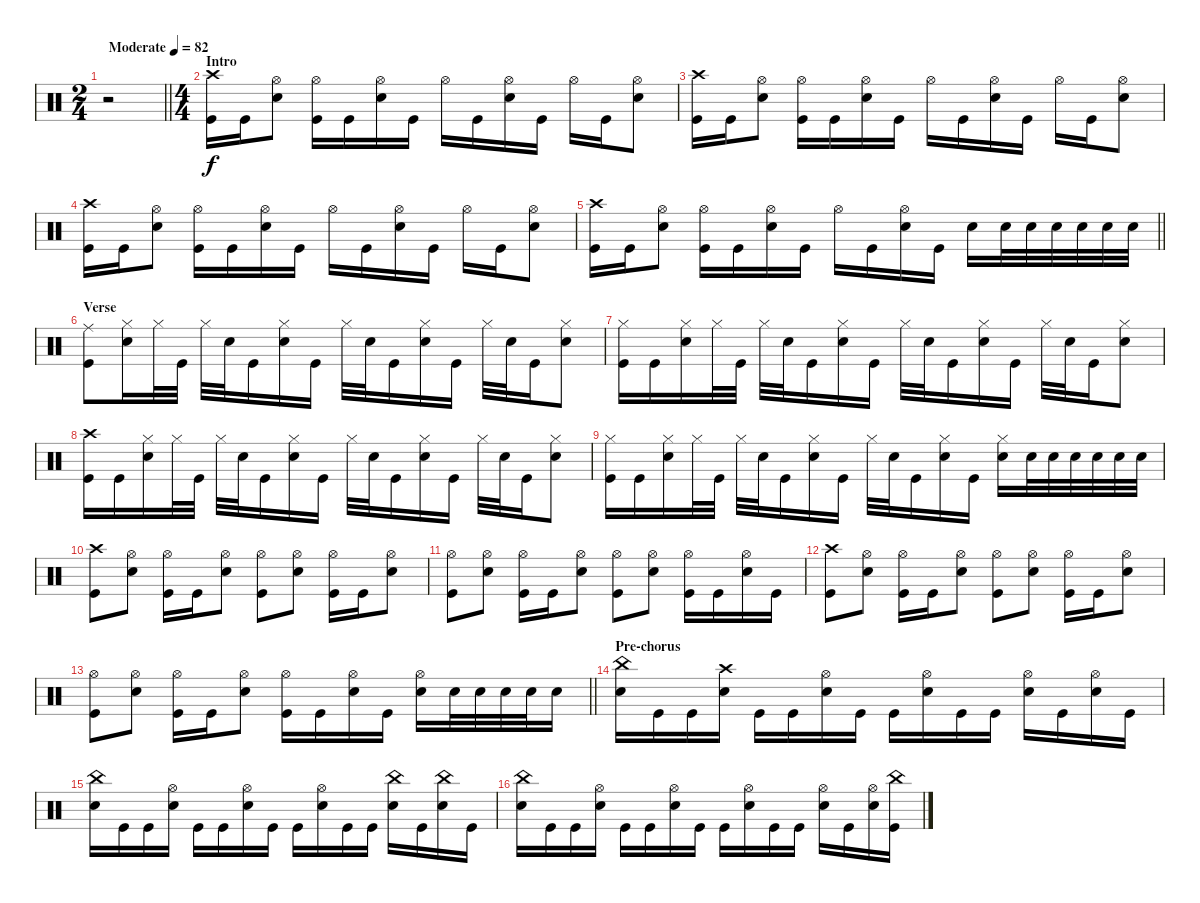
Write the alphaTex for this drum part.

\track "" {instrument percussion}
\staff {score}
\articulation defaults
\ts (2 4)
\tempo (82 "Moderate")
\clef neutral
\barLineRight lightlight
\ks c
r.2{txt "" dy f} |
\ts (4 4)
\section ("" "Intro")
("Crash high (hit)" "Kick (hit)").16 "Kick (hit)".16 ("Snare (hit) 2" "Hi-Hat (open)").8 ("Kick (hit)" "Hi-Hat (open)").16 "Kick (hit)".16 ("Snare (hit) 2" "Hi-Hat (open)").16 "Kick (hit)".16 "Hi-Hat (open)".16 "Kick (hit)".16 ("Snare (hit) 2" "Hi-Hat (open)").16 "Kick (hit)".16 "Hi-Hat (open)".16 "Kick (hit)".16 ("Snare (hit) 2" "Hi-Hat (open)").8 |
("Crash high (hit)" "Kick (hit)").16 "Kick (hit)".16 ("Snare (hit) 2" "Hi-Hat (open)").8 ("Kick (hit)" "Hi-Hat (open)").16 "Kick (hit)".16 ("Snare (hit) 2" "Hi-Hat (open)").16 "Kick (hit)".16 "Hi-Hat (open)".16 "Kick (hit)".16 ("Snare (hit) 2" "Hi-Hat (open)").16 "Kick (hit)".16 "Hi-Hat (open)".16 "Kick (hit)".16 ("Snare (hit) 2" "Hi-Hat (open)").8 |
("Crash high (hit)" "Kick (hit)").16 "Kick (hit)".16 ("Snare (hit) 2" "Hi-Hat (open)").8 ("Kick (hit)" "Hi-Hat (open)").16 "Kick (hit)".16 ("Snare (hit) 2" "Hi-Hat (open)").16 "Kick (hit)".16 "Hi-Hat (open)".16 "Kick (hit)".16 ("Snare (hit) 2" "Hi-Hat (open)").16 "Kick (hit)".16 "Hi-Hat (open)".16 "Kick (hit)".16 ("Snare (hit) 2" "Hi-Hat (open)").8 |
\barLineRight lightlight
("Crash high (hit)" "Kick (hit)").16 "Kick (hit)".16 ("Snare (hit) 2" "Hi-Hat (open)").8 ("Kick (hit)" "Hi-Hat (open)").16 "Kick (hit)".16 ("Snare (hit) 2" "Hi-Hat (open)").16 "Kick (hit)".16 "Hi-Hat (open)".16 "Kick (hit)".16 ("Snare (hit) 2" "Hi-Hat (open)").16 "Kick (hit)".16 "Snare (hit) 2".16 "Snare (hit) 2".32 "Snare (hit) 2".32 "Snare (hit) 2".32 "Snare (hit) 2".32 "Snare (hit) 2".32 "Snare (hit) 2".32 |
\section ("" "Verse")
("Kick (hit)" "Ride (middle)").8{txt ""} ("Snare (hit) 2" "Hi-Hat (closed)").16 "Hi-Hat (closed)".32 "Kick (hit)".32 "Hi-Hat (closed)".32 "Snare (hit) 2".32 "Kick (hit)".16 ("Snare (hit) 2" "Hi-Hat (closed)").16 "Kick (hit)".16 "Hi-Hat (closed)".32 "Snare (hit) 2".32 "Kick (hit)".16 ("Snare (hit) 2" "Hi-Hat (closed)").16 "Kick (hit)".16 "Hi-Hat (closed)".32 "Snare (hit) 2".32 "Kick (hit)".16 ("Snare (hit) 2" "Hi-Hat (closed)").8 |
("Kick (hit)" "Hi-Hat (closed)").16 "Kick (hit)".16 ("Snare (hit) 2" "Hi-Hat (closed)").16 "Hi-Hat (closed)".32 "Kick (hit)".32 "Hi-Hat (closed)".32 "Snare (hit) 2".32 "Kick (hit)".16 ("Snare (hit) 2" "Hi-Hat (closed)").16 "Kick (hit)".16 "Hi-Hat (closed)".32 "Snare (hit) 2".32 "Kick (hit)".16 ("Snare (hit) 2" "Hi-Hat (closed)").16 "Kick (hit)".16 "Hi-Hat (closed)".32 "Snare (hit) 2".32 "Kick (hit)".16 ("Snare (hit) 2" "Hi-Hat (closed)").8 |
("Kick (hit)" "Crash high (hit)").16 "Kick (hit)".16 ("Snare (hit) 2" "Hi-Hat (closed)").16 "Hi-Hat (closed)".32 "Kick (hit)".32 "Hi-Hat (closed)".32 "Snare (hit) 2".32 "Kick (hit)".16 ("Snare (hit) 2" "Hi-Hat (closed)").16 "Kick (hit)".16 "Hi-Hat (closed)".32 "Snare (hit) 2".32 "Kick (hit)".16 ("Snare (hit) 2" "Hi-Hat (closed)").16 "Kick (hit)".16 "Hi-Hat (closed)".32 "Snare (hit) 2".32 "Kick (hit)".16 ("Snare (hit) 2" "Hi-Hat (closed)").8 |
("Kick (hit)" "Hi-Hat (closed)").16 "Kick (hit)".16 ("Snare (hit) 2" "Hi-Hat (closed)").16 "Hi-Hat (closed)".32 "Kick (hit)".32 "Hi-Hat (closed)".32 "Snare (hit) 2".32 "Kick (hit)".16 ("Snare (hit) 2" "Hi-Hat (closed)").16 "Kick (hit)".16 "Hi-Hat (closed)".32 "Snare (hit) 2".32 "Kick (hit)".16 ("Snare (hit) 2" "Hi-Hat (closed)").16 "Kick (hit)".16 ("Snare (hit) 2" "Hi-Hat (closed)").16 "Snare (hit) 2".32 "Snare (hit) 2".32 "Snare (hit) 2".32 "Snare (hit) 2".32 "Snare (hit) 2".32 "Snare (hit) 2".32 |
("Crash high (hit)" "Kick (hit)").8{txt ""} ("Snare (hit) 2" "Hi-Hat (open)").8 ("Hi-Hat (open)" "Kick (hit)").16 "Kick (hit)".16 ("Snare (hit) 2" "Hi-Hat (open)").8 ("Kick (hit)" "Hi-Hat (open)").8 ("Snare (hit) 2" "Hi-Hat (open)").8 ("Kick (hit)" "Hi-Hat (open)").16 "Kick (hit)".16 ("Snare (hit) 2" "Hi-Hat (open)").8 |
("Hi-Hat (open)" "Kick (hit)").8 ("Snare (hit) 2" "Hi-Hat (open)").8 ("Hi-Hat (open)" "Kick (hit)").16 "Kick (hit)".16 ("Snare (hit) 2" "Hi-Hat (open)").8 ("Kick (hit)" "Hi-Hat (open)").8 ("Snare (hit) 2" "Hi-Hat (open)").8 ("Kick (hit)" "Hi-Hat (open)").16 "Kick (hit)".16 ("Snare (hit) 2" "Hi-Hat (open)").16 "Kick (hit)".16 |
("Crash high (hit)" "Kick (hit)").8 ("Snare (hit) 2" "Hi-Hat (open)").8 ("Hi-Hat (open)" "Kick (hit)").16 "Kick (hit)".16 ("Snare (hit) 2" "Hi-Hat (open)").8 ("Kick (hit)" "Hi-Hat (open)").8 ("Snare (hit) 2" "Hi-Hat (open)").8 ("Kick (hit)" "Hi-Hat (open)").16 "Kick (hit)".16 ("Snare (hit) 2" "Hi-Hat (open)").8 |
\barLineRight lightlight
("Hi-Hat (open)" "Kick (hit)").8 ("Snare (hit) 2" "Hi-Hat (open)").8 ("Hi-Hat (open)" "Kick (hit)").16 "Kick (hit)".16 ("Snare (hit) 2" "Hi-Hat (open)").8 ("Hi-Hat (open)" "Kick (hit)").16 "Kick (hit)".16 ("Snare (hit) 2" "Hi-Hat (open)").16 "Kick (hit)".16 ("Snare (hit) 2" "Hi-Hat (open)").16 "Snare (hit) 2".32 "Snare (hit) 2".32 "Snare (hit) 2".32 "Snare (hit) 2".32 "Snare (hit) 2".16 |
\section ("" "Pre-chorus")
("China (hit)" "Snare (hit) 2").16{txt ""} "Kick (hit)".16 "Kick (hit)".16 ("Snare (hit) 2" "Crash high (hit)").16 "Kick (hit)".16 "Kick (hit)".16 ("Hi-Hat (open)" "Snare (hit) 2").16 "Kick (hit)".16 "Kick (hit)".16 ("Hi-Hat (open)" "Snare (hit) 2").16 "Kick (hit)".16 "Kick (hit)".16 ("Hi-Hat (open)" "Snare (hit) 2").16 "Kick (hit)".16 ("Hi-Hat (open)" "Snare (hit) 2").16 "Kick (hit)".16 |
("China (hit)" "Snare (hit) 2").16 "Kick (hit)".16 "Kick (hit)".16 ("Hi-Hat (open)" "Snare (hit) 2").16 "Kick (hit)".16 "Kick (hit)".16 ("Snare (hit) 2" "Hi-Hat (open)").16 "Kick (hit)".16 "Kick (hit)".16 ("Snare (hit) 2" "Hi-Hat (open)").16 "Kick (hit)".16 "Kick (hit)".16 ("China (hit)" "Snare (hit) 2").16 "Kick (hit)".16 ("China (hit)" "Snare (hit) 2").16 "Kick (hit)".16 |
("China (hit)" "Snare (hit) 2").16 "Kick (hit)".16 "Kick (hit)".16 ("Hi-Hat (open)" "Snare (hit) 2").16 "Kick (hit)".16 "Kick (hit)".16 ("Hi-Hat (open)" "Snare (hit) 2").16 "Kick (hit)".16 "Kick (hit)".16 ("Hi-Hat (open)" "Snare (hit) 2").16 "Kick (hit)".16 "Kick (hit)".16 ("Hi-Hat (open)" "Snare (hit) 2").16 "Kick (hit)".16 ("Hi-Hat (open)" "Snare (hit) 2").16 ("Kick (hit)" "China (hit)").16
